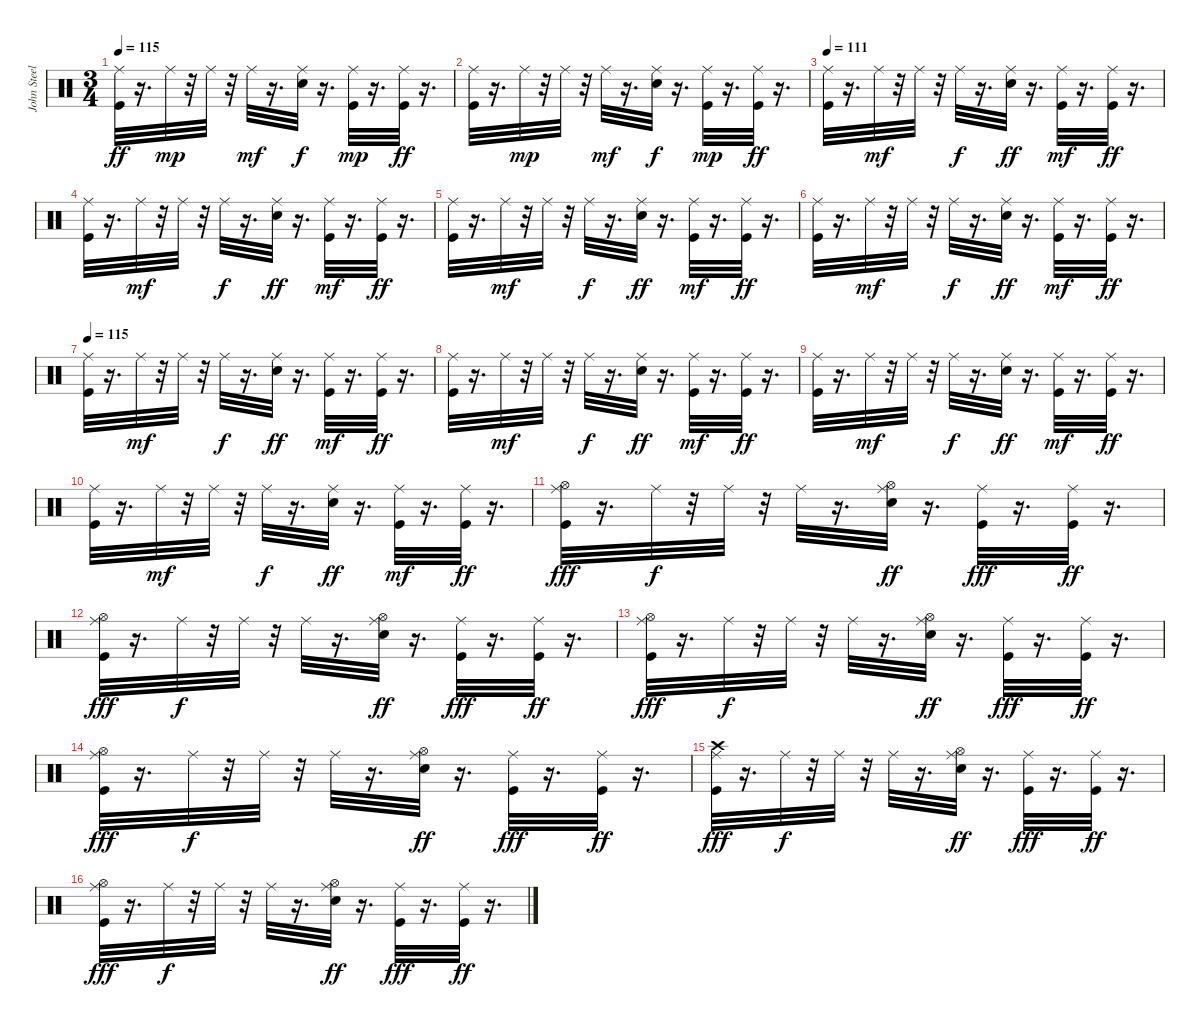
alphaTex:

\track ("John Steel" "John Steel") {instrument percussion}
\staff {score}
\articulation defaults
\ts (3 4)
\tempo 115
\clef neutral
\ks c
("Kick (hit)" "Ride (middle)").32{dy ff} r.16{d} "Ride (middle)".32{dy mp} r.32 "Ride (middle)".32 r.32 "Ride (middle)".32{dy mf} r.16{d} ("Snare (hit) 2" "Ride (middle)").32{dy f} r.16{d} ("Kick (hit)" "Ride (middle)").32{dy mp} r.16{d} ("Kick (hit)" "Ride (middle)").32{dy ff} r.16{d} |
("Kick (hit)" "Ride (middle)").32 r.16{d} "Ride (middle)".32{dy mp} r.32 "Ride (middle)".32 r.32 "Ride (middle)".32{dy mf} r.16{d} ("Snare (hit) 2" "Ride (middle)").32{dy f} r.16{d} ("Kick (hit)" "Ride (middle)").32{dy mp} r.16{d} ("Kick (hit)" "Ride (middle)").32{dy ff} r.16{d} |
\tempo 111
("Kick (hit)" "Ride (middle)").32 r.16{d} "Ride (middle)".32{dy mf} r.32 "Ride (middle)".32 r.32 "Ride (middle)".32{dy f} r.16{d} ("Snare (hit) 2" "Ride (middle)").32{dy ff} r.16{d} ("Kick (hit)" "Ride (middle)").32{dy mf} r.16{d} ("Kick (hit)" "Ride (middle)").32{dy ff} r.16{d} |
("Kick (hit)" "Ride (middle)").32 r.16{d} "Ride (middle)".32{dy mf} r.32 "Ride (middle)".32 r.32 "Ride (middle)".32{dy f} r.16{d} ("Snare (hit) 2" "Ride (middle)").32{dy ff} r.16{d} ("Kick (hit)" "Ride (middle)").32{dy mf} r.16{d} ("Kick (hit)" "Ride (middle)").32{dy ff} r.16{d} |
("Kick (hit)" "Ride (middle)").32 r.16{d} "Ride (middle)".32{dy mf} r.32 "Ride (middle)".32 r.32 "Ride (middle)".32{dy f} r.16{d} ("Snare (hit) 2" "Ride (middle)").32{dy ff} r.16{d} ("Kick (hit)" "Ride (middle)").32{dy mf} r.16{d} ("Kick (hit)" "Ride (middle)").32{dy ff} r.16{d} |
("Kick (hit)" "Ride (middle)").32 r.16{d} "Ride (middle)".32{dy mf} r.32 "Ride (middle)".32 r.32 "Ride (middle)".32{dy f} r.16{d} ("Snare (hit) 2" "Ride (middle)").32{dy ff} r.16{d} ("Kick (hit)" "Ride (middle)").32{dy mf} r.16{d} ("Kick (hit)" "Ride (middle)").32{dy ff} r.16{d} |
\tempo 115
("Kick (hit)" "Ride (middle)").32 r.16{d} "Ride (middle)".32{dy mf} r.32 "Ride (middle)".32 r.32 "Ride (middle)".32{dy f} r.16{d} ("Snare (hit) 2" "Ride (middle)").32{dy ff} r.16{d} ("Kick (hit)" "Ride (middle)").32{dy mf} r.16{d} ("Kick (hit)" "Ride (middle)").32{dy ff} r.16{d} |
("Kick (hit)" "Ride (middle)").32 r.16{d} "Ride (middle)".32{dy mf} r.32 "Ride (middle)".32 r.32 "Ride (middle)".32{dy f} r.16{d} ("Snare (hit) 2" "Ride (middle)").32{dy ff} r.16{d} ("Kick (hit)" "Ride (middle)").32{dy mf} r.16{d} ("Kick (hit)" "Ride (middle)").32{dy ff} r.16{d} |
("Kick (hit)" "Ride (middle)").32 r.16{d} "Ride (middle)".32{dy mf} r.32 "Ride (middle)".32 r.32 "Ride (middle)".32{dy f} r.16{d} ("Snare (hit) 2" "Ride (middle)").32{dy ff} r.16{d} ("Kick (hit)" "Ride (middle)").32{dy mf} r.16{d} ("Kick (hit)" "Ride (middle)").32{dy ff} r.16{d} |
("Kick (hit)" "Ride (middle)").32 r.16{d} "Ride (middle)".32{dy mf} r.32 "Ride (middle)".32 r.32 "Ride (middle)".32{dy f} r.16{d} ("Snare (hit) 2" "Ride (middle)").32{dy ff} r.16{d} ("Kick (hit)" "Ride (middle)").32{dy mf} r.16{d} ("Kick (hit)" "Ride (middle)").32{dy ff} r.16{d} |
("Kick (hit)" "Hi-Hat (open)" "Ride (middle)").32{dy fff} r.16{d} "Ride (middle)".32{dy f} r.32 "Ride (middle)".32 r.32 "Ride (middle)".32 r.16{d} ("Snare (hit) 2" "Hi-Hat (open)" "Ride (middle)").32{dy ff} r.16{d} ("Kick (hit)" "Ride (middle)").32{dy fff} r.16{d} ("Kick (hit)" "Ride (middle)").32{dy ff} r.16{d} |
("Kick (hit)" "Hi-Hat (open)" "Ride (middle)").32{dy fff} r.16{d} "Ride (middle)".32{dy f} r.32 "Ride (middle)".32 r.32 "Ride (middle)".32 r.16{d} ("Snare (hit) 2" "Hi-Hat (open)" "Ride (middle)").32{dy ff} r.16{d} ("Kick (hit)" "Ride (middle)").32{dy fff} r.16{d} ("Kick (hit)" "Ride (middle)").32{dy ff} r.16{d} |
("Kick (hit)" "Hi-Hat (open)" "Ride (middle)").32{dy fff} r.16{d} "Ride (middle)".32{dy f} r.32 "Ride (middle)".32 r.32 "Ride (middle)".32 r.16{d} ("Snare (hit) 2" "Hi-Hat (open)" "Ride (middle)").32{dy ff} r.16{d} ("Kick (hit)" "Ride (middle)").32{dy fff} r.16{d} ("Kick (hit)" "Ride (middle)").32{dy ff} r.16{d} |
("Kick (hit)" "Hi-Hat (open)" "Ride (middle)").32{dy fff} r.16{d} "Ride (middle)".32{dy f} r.32 "Ride (middle)".32 r.32 "Ride (middle)".32 r.16{d} ("Snare (hit) 2" "Hi-Hat (open)" "Ride (middle)").32{dy ff} r.16{d} ("Kick (hit)" "Ride (middle)").32{dy fff} r.16{d} ("Kick (hit)" "Ride (middle)").32{dy ff} r.16{d} |
("Kick (hit)" "Crash high (hit)" "Ride (middle)").32{dy fff} r.16{d} "Ride (middle)".32{dy f} r.32 "Ride (middle)".32 r.32 "Ride (middle)".32 r.16{d} ("Snare (hit) 2" "Hi-Hat (open)" "Ride (middle)").32{dy ff} r.16{d} ("Kick (hit)" "Ride (middle)").32{dy fff} r.16{d} ("Kick (hit)" "Ride (middle)").32{dy ff} r.16{d} |
("Kick (hit)" "Hi-Hat (open)" "Ride (middle)").32{dy fff} r.16{d} "Ride (middle)".32{dy f} r.32 "Ride (middle)".32 r.32 "Ride (middle)".32 r.16{d} ("Snare (hit) 2" "Hi-Hat (open)" "Ride (middle)").32{dy ff} r.16{d} ("Kick (hit)" "Ride (middle)").32{dy fff} r.16{d} ("Kick (hit)" "Ride (middle)").32{dy ff} r.16{d}
